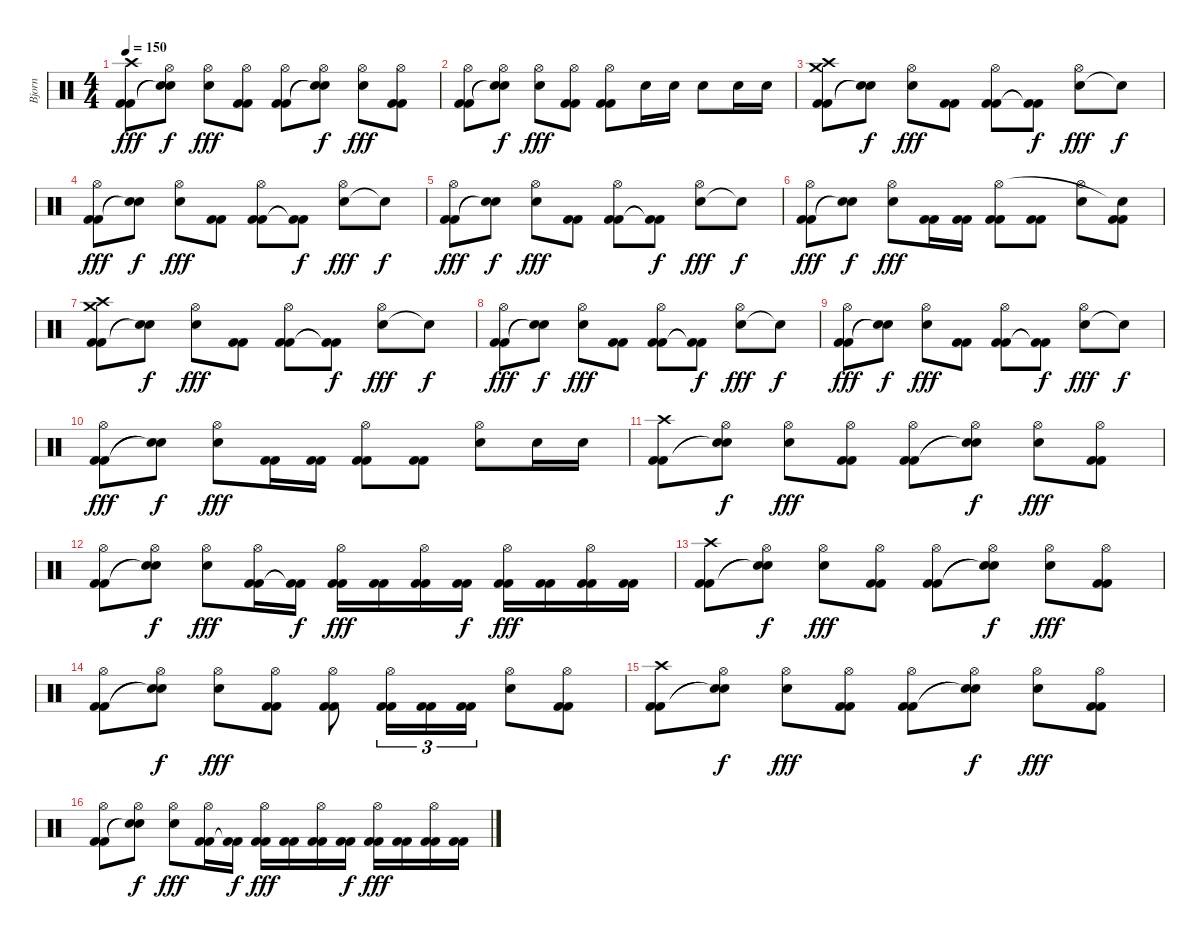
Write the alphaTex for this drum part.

\track ("Bjorn" "Bjorn") {instrument percussion}
\staff {score}
\articulation defaults
\ts (4 4)
\tempo 150
\clef neutral
\ks c
("Kick (hit) 2" "Kick (hit) 2" "Crash high (hit)").8{dy fff} ("Snare (hit)"{t} "Snare (hit)"{t} "Hi-Hat (open)").8{dy f} ("Snare (hit) 2" "Hi-Hat (open)").8{dy fff} ("Kick (hit) 2" "Kick (hit) 2" "Hi-Hat (open)").8 ("Kick (hit) 2" "Kick (hit) 2" "Hi-Hat (open)").8 ("Snare (hit)"{t} "Snare (hit)"{t} "Hi-Hat (open)").8{dy f} ("Snare (hit) 2" "Hi-Hat (open)").8{dy fff} ("Kick (hit) 2" "Kick (hit) 2" "Hi-Hat (open)").8 |
("Kick (hit) 2" "Kick (hit) 2" "Hi-Hat (open)").8 ("Snare (hit)"{t} "Snare (hit)"{t} "Hi-Hat (open)").8{dy f} ("Snare (hit) 2" "Hi-Hat (open)").8{dy fff} ("Kick (hit) 2" "Kick (hit) 2" "Hi-Hat (open)").8 ("Kick (hit) 2" "Kick (hit) 2" "Hi-Hat (open)").8 "Snare (hit) 2".16 "Snare (hit) 2".16 "Snare (hit) 2".8 "Snare (hit) 2".16 "Snare (hit) 2".16 |
("Kick (hit) 2" "Kick (hit) 2" "Crash high (hit)" "Crash medium (hit)").8 ("Snare (hit)"{t} "Snare (hit)"{t}).8{dy f} ("Snare (hit) 2" "Hi-Hat (open)").8{dy fff} ("Kick (hit) 2" "Kick (hit) 2").8 ("Kick (hit) 2" "Kick (hit) 2" "Hi-Hat (open)").8 ("Kick (hit) 2"{t} "Kick (hit) 2"{t}).8{dy f} ("Snare (hit) 2" "Hi-Hat (open)").8{dy fff} "Snare (hit)"{t}.8{dy f} |
("Kick (hit) 2" "Kick (hit) 2" "Hi-Hat (open)").8{dy fff} ("Snare (hit)"{t} "Snare (hit)"{t}).8{dy f} ("Snare (hit) 2" "Hi-Hat (open)").8{dy fff} ("Kick (hit) 2" "Kick (hit) 2").8 ("Kick (hit) 2" "Kick (hit) 2" "Hi-Hat (open)").8 ("Kick (hit) 2"{t} "Kick (hit) 2"{t}).8{dy f} ("Snare (hit) 2" "Hi-Hat (open)").8{dy fff} "Snare (hit)"{t}.8{dy f} |
("Kick (hit) 2" "Kick (hit) 2" "Hi-Hat (open)").8{dy fff} ("Snare (hit)"{t} "Snare (hit)"{t}).8{dy f} ("Snare (hit) 2" "Hi-Hat (open)").8{dy fff} ("Kick (hit) 2" "Kick (hit) 2").8 ("Kick (hit) 2" "Kick (hit) 2" "Hi-Hat (open)").8 ("Kick (hit) 2"{t} "Kick (hit) 2"{t}).8{dy f} ("Snare (hit) 2" "Hi-Hat (open)").8{dy fff} "Snare (hit)"{t}.8{dy f} |
("Kick (hit) 2" "Kick (hit) 2" "Hi-Hat (open)").8{dy fff} ("Snare (hit)"{t} "Snare (hit)"{t}).8{dy f} ("Snare (hit) 2" "Hi-Hat (open)").8{dy fff} ("Kick (hit) 2" "Kick (hit) 2").16 ("Kick (hit) 2" "Kick (hit) 2").16 ("Kick (hit) 2" "Kick (hit) 2" "Hi-Hat (open)").8 ("Kick (hit) 2" "Kick (hit) 2").8 ("Snare (hit) 2" "Hi-Hat (open)").8 ("Kick (hit) 2" "Kick (hit) 2" "Snare (hit)"{t}).8 |
("Kick (hit) 2" "Kick (hit) 2" "Crash high (hit)" "Crash medium (hit)").8 ("Snare (hit)"{t} "Snare (hit)"{t}).8{dy f} ("Snare (hit) 2" "Hi-Hat (open)").8{dy fff} ("Kick (hit) 2" "Kick (hit) 2").8 ("Kick (hit) 2" "Kick (hit) 2" "Hi-Hat (open)").8 ("Kick (hit) 2"{t} "Kick (hit) 2"{t}).8{dy f} ("Snare (hit) 2" "Hi-Hat (open)").8{dy fff} "Snare (hit)"{t}.8{dy f} |
("Kick (hit) 2" "Kick (hit) 2" "Hi-Hat (open)").8{dy fff} ("Snare (hit)"{t} "Snare (hit)"{t}).8{dy f} ("Snare (hit) 2" "Hi-Hat (open)").8{dy fff} ("Kick (hit) 2" "Kick (hit) 2").8 ("Kick (hit) 2" "Kick (hit) 2" "Hi-Hat (open)").8 ("Kick (hit) 2"{t} "Kick (hit) 2"{t}).8{dy f} ("Snare (hit) 2" "Hi-Hat (open)").8{dy fff} "Snare (hit)"{t}.8{dy f} |
("Kick (hit) 2" "Kick (hit) 2" "Hi-Hat (open)").8{dy fff} ("Snare (hit)"{t} "Snare (hit)"{t}).8{dy f} ("Snare (hit) 2" "Hi-Hat (open)").8{dy fff} ("Kick (hit) 2" "Kick (hit) 2").8 ("Kick (hit) 2" "Kick (hit) 2" "Hi-Hat (open)").8 ("Kick (hit) 2"{t} "Kick (hit) 2"{t}).8{dy f} ("Snare (hit) 2" "Hi-Hat (open)").8{dy fff} "Snare (hit)"{t}.8{dy f} |
("Kick (hit) 2" "Kick (hit) 2" "Hi-Hat (open)").8{dy fff} ("Snare (hit)"{t} "Snare (hit)"{t}).8{dy f} ("Snare (hit) 2" "Hi-Hat (open)").8{dy fff} ("Kick (hit) 2" "Kick (hit) 2").16 ("Kick (hit) 2" "Kick (hit) 2").16 ("Kick (hit) 2" "Kick (hit) 2" "Hi-Hat (open)").8 ("Kick (hit) 2" "Kick (hit) 2").8 ("Snare (hit) 2" "Hi-Hat (open)").8 "Snare (hit) 2".16 "Snare (hit) 2".16 |
("Kick (hit) 2" "Kick (hit) 2" "Crash high (hit)").8 ("Snare (hit)"{t} "Snare (hit)"{t} "Hi-Hat (open)").8{dy f} ("Snare (hit) 2" "Hi-Hat (open)").8{dy fff} ("Kick (hit) 2" "Kick (hit) 2" "Hi-Hat (open)").8 ("Kick (hit) 2" "Kick (hit) 2" "Hi-Hat (open)").8 ("Snare (hit)"{t} "Snare (hit)"{t} "Hi-Hat (open)").8{dy f} ("Snare (hit) 2" "Hi-Hat (open)").8{dy fff} ("Kick (hit) 2" "Kick (hit) 2" "Hi-Hat (open)").8 |
("Kick (hit) 2" "Kick (hit) 2" "Hi-Hat (open)").8 ("Snare (hit)"{t} "Snare (hit)"{t} "Hi-Hat (open)").8{dy f} ("Snare (hit) 2" "Hi-Hat (open)").8{dy fff} ("Kick (hit) 2" "Kick (hit) 2" "Hi-Hat (open)").16 ("Kick (hit) 2"{t} "Kick (hit) 2"{t}).16{dy f} ("Kick (hit) 2" "Kick (hit) 2" "Hi-Hat (open)").16{dy fff} ("Kick (hit) 2" "Kick (hit) 2").16 ("Kick (hit) 2" "Kick (hit) 2" "Hi-Hat (open)").16 ("Kick (hit) 2" "Kick (hit) 2").16{dy f} ("Kick (hit) 2" "Kick (hit) 2" "Hi-Hat (open)").16{dy fff} ("Kick (hit) 2" "Kick (hit) 2").16 ("Kick (hit) 2" "Kick (hit) 2" "Hi-Hat (open)").16 ("Kick (hit) 2" "Kick (hit) 2").16 |
("Kick (hit) 2" "Kick (hit) 2" "Crash high (hit)").8 ("Snare (hit)"{t} "Snare (hit)"{t} "Hi-Hat (open)").8{dy f} ("Snare (hit) 2" "Hi-Hat (open)").8{dy fff} ("Kick (hit) 2" "Kick (hit) 2" "Hi-Hat (open)").8 ("Kick (hit) 2" "Kick (hit) 2" "Hi-Hat (open)").8 ("Snare (hit)"{t} "Snare (hit)"{t} "Hi-Hat (open)").8{dy f} ("Snare (hit) 2" "Hi-Hat (open)").8{dy fff} ("Kick (hit) 2" "Kick (hit) 2" "Hi-Hat (open)").8 |
("Kick (hit) 2" "Kick (hit) 2" "Hi-Hat (open)").8 ("Snare (hit)"{t} "Snare (hit)"{t} "Hi-Hat (open)").8{dy f} ("Snare (hit) 2" "Hi-Hat (open)").8{dy fff} ("Kick (hit) 2" "Kick (hit) 2" "Hi-Hat (open)").8 ("Kick (hit) 2" "Kick (hit) 2" "Hi-Hat (open)").8 ("Kick (hit) 2" "Kick (hit) 2" "Hi-Hat (open)").16{tu (3 2)} ("Kick (hit) 2" "Kick (hit) 2").16{tu (3 2)} ("Kick (hit) 2" "Kick (hit) 2").16{tu (3 2)} ("Snare (hit) 2" "Hi-Hat (open)").8 ("Kick (hit) 2" "Kick (hit) 2" "Hi-Hat (open)").8 |
("Kick (hit) 2" "Kick (hit) 2" "Crash high (hit)").8 ("Snare (hit)"{t} "Snare (hit)"{t} "Hi-Hat (open)").8{dy f} ("Snare (hit) 2" "Hi-Hat (open)").8{dy fff} ("Kick (hit) 2" "Kick (hit) 2" "Hi-Hat (open)").8 ("Kick (hit) 2" "Kick (hit) 2" "Hi-Hat (open)").8 ("Snare (hit)"{t} "Snare (hit)"{t} "Hi-Hat (open)").8{dy f} ("Snare (hit) 2" "Hi-Hat (open)").8{dy fff} ("Kick (hit) 2" "Kick (hit) 2" "Hi-Hat (open)").8 |
("Kick (hit) 2" "Kick (hit) 2" "Hi-Hat (open)").8 ("Snare (hit)"{t} "Snare (hit)"{t} "Hi-Hat (open)").8{dy f} ("Snare (hit) 2" "Hi-Hat (open)").8{dy fff} ("Kick (hit) 2" "Kick (hit) 2" "Hi-Hat (open)").16 ("Kick (hit) 2"{t} "Kick (hit) 2"{t}).16{dy f} ("Kick (hit) 2" "Kick (hit) 2" "Hi-Hat (open)").16{dy fff} ("Kick (hit) 2" "Kick (hit) 2").16 ("Kick (hit) 2" "Kick (hit) 2" "Hi-Hat (open)").16 ("Kick (hit) 2" "Kick (hit) 2").16{dy f} ("Kick (hit) 2" "Kick (hit) 2" "Hi-Hat (open)").16{dy fff} ("Kick (hit) 2" "Kick (hit) 2").16 ("Kick (hit) 2" "Kick (hit) 2" "Hi-Hat (open)").16 ("Kick (hit) 2" "Kick (hit) 2").16
